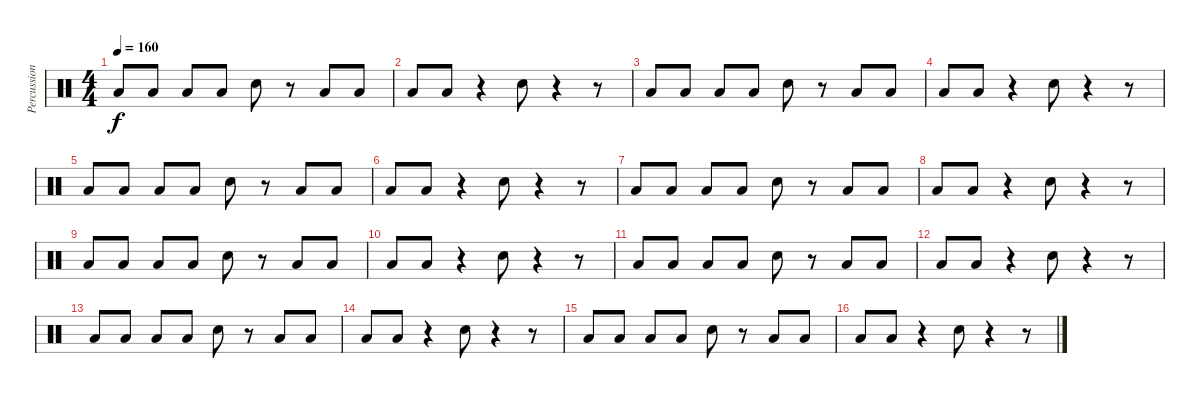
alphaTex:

\track ("Percussion" "Percussion") {instrument percussion}
\staff {score}
\articulation defaults
\ts (4 4)
\tempo 160
\clef neutral
\ks c "Low Floor Tom (hit)".8{dy f} "Low Floor Tom (hit)".8 "Low Floor Tom (hit)".8 "Low Floor Tom (hit)".8 "Electric Snare (hit)".8
r.8 "Low Floor Tom (hit)".8 "Low Floor Tom (hit)".8 |
"Low Floor Tom (hit)".8 "Low Floor Tom (hit)".8 r.4 "Electric Snare (hit)".8 r.4 r.8 |
"Low Floor Tom (hit)".8 "Low Floor Tom (hit)".8 "Low Floor Tom (hit)".8 "Low Floor Tom (hit)".8 "Electric Snare (hit)".8 r.8 "Low Floor Tom (hit)".8 "Low Floor Tom (hit)".8 |
"Low Floor Tom (hit)".8 "Low Floor Tom (hit)".8 r.4 "Electric Snare (hit)".8 r.4 r.8 |
"Low Floor Tom (hit)".8 "Low Floor Tom (hit)".8 "Low Floor Tom (hit)".8 "Low Floor Tom (hit)".8 "Electric Snare (hit)".8 r.8 "Low Floor Tom (hit)".8 "Low Floor Tom (hit)".8 |
"Low Floor Tom (hit)".8 "Low Floor Tom (hit)".8 r.4 "Electric Snare (hit)".8 r.4 r.8 |
"Low Floor Tom (hit)".8 "Low Floor Tom (hit)".8 "Low Floor Tom (hit)".8 "Low Floor Tom (hit)".8 "Electric Snare (hit)".8 r.8 "Low Floor Tom (hit)".8 "Low Floor Tom (hit)".8 |
"Low Floor Tom (hit)".8 "Low Floor Tom (hit)".8 r.4 "Electric Snare (hit)".8 r.4 r.8 |
"Low Floor Tom (hit)".8 "Low Floor Tom (hit)".8 "Low Floor Tom (hit)".8 "Low Floor Tom (hit)".8 "Electric Snare (hit)".8 r.8 "Low Floor Tom (hit)".8 "Low Floor Tom (hit)".8 |
"Low Floor Tom (hit)".8 "Low Floor Tom (hit)".8 r.4 "Electric Snare (hit)".8 r.4 r.8 |
"Low Floor Tom (hit)".8 "Low Floor Tom (hit)".8 "Low Floor Tom (hit)".8 "Low Floor Tom (hit)".8 "Electric Snare (hit)".8 r.8 "Low Floor Tom (hit)".8 "Low Floor Tom (hit)".8 |
"Low Floor Tom (hit)".8 "Low Floor Tom (hit)".8 r.4 "Electric Snare (hit)".8 r.4 r.8 |
"Low Floor Tom (hit)".8 "Low Floor Tom (hit)".8 "Low Floor Tom (hit)".8 "Low Floor Tom (hit)".8 "Electric Snare (hit)".8 r.8 "Low Floor Tom (hit)".8 "Low Floor Tom (hit)".8 |
"Low Floor Tom (hit)".8 "Low Floor Tom (hit)".8 r.4 "Electric Snare (hit)".8 r.4 r.8 |
"Low Floor Tom (hit)".8 "Low Floor Tom (hit)".8 "Low Floor Tom (hit)".8 "Low Floor Tom (hit)".8 "Electric Snare (hit)".8 r.8 "Low Floor Tom (hit)".8 "Low Floor Tom (hit)".8 |
"Low Floor Tom (hit)".8 "Low Floor Tom (hit)".8 r.4 "Electric Snare (hit)".8 r.4 r.8
